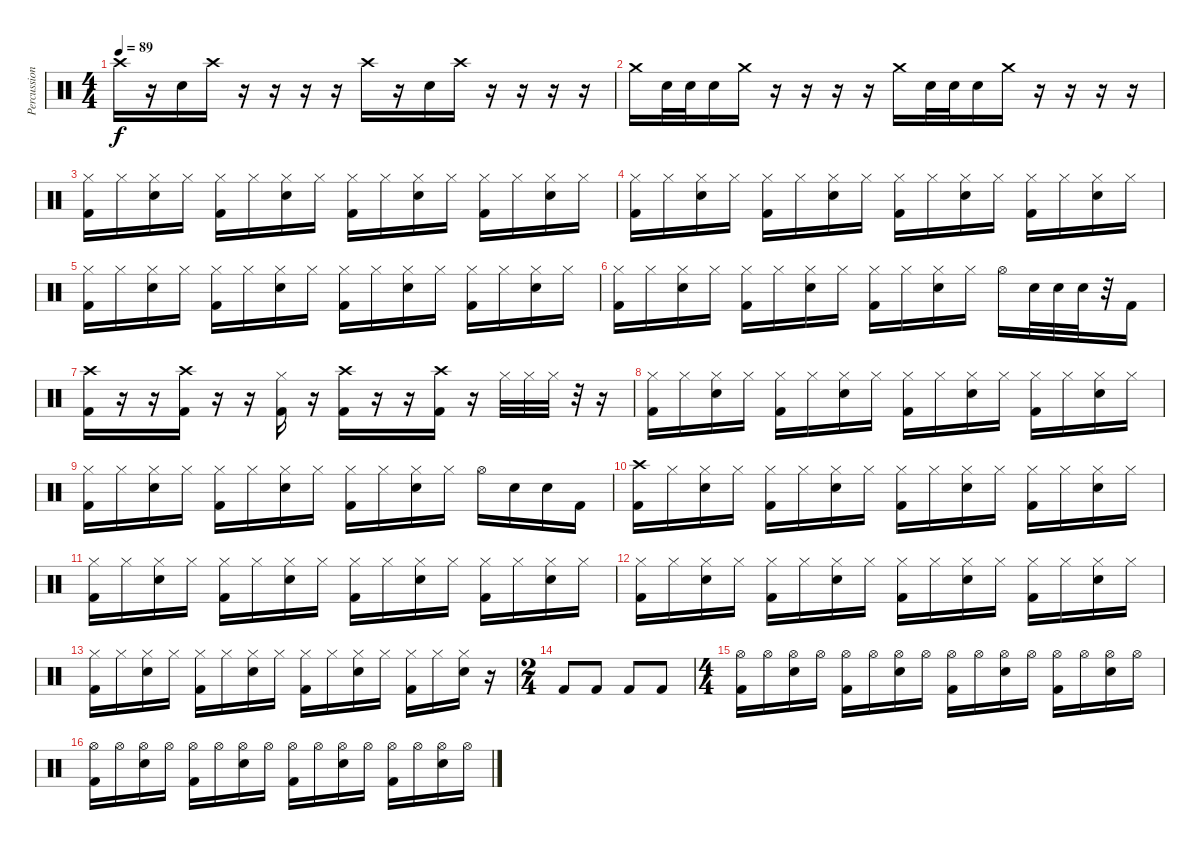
\track ("Percussion" "Percussion") {instrument percussion}
\staff {score}
\articulation defaults
\ts (4 4)
\tempo 89
\clef neutral
\ks c "Crash high (hit)".16{dy f}
r.16 "Snare (hit) 2".16 "Crash high (hit)".16 r.16 r.16 r.16 r.16 "Crash high (hit)".16 r.16 "Snare (hit) 2".16 "Crash high (hit)".16 r.16 r.16 r.16 r.16 |
"Crash medium (hit)".16 "Snare (hit) 2".32 "Snare (hit) 2".32 "Snare (hit) 2".16 "Crash medium (hit)".16 r.16 r.16 r.16 r.16 "Crash medium (hit)".16 "Snare (hit) 2".32 "Snare (hit) 2".32 "Snare (hit) 2".16 "Crash medium (hit)".16 r.16 r.16 r.16 r.16 |
("Hi-Hat (closed)" "Kick (hit) 2").16 "Hi-Hat (closed)".16 ("Hi-Hat (closed)" "Snare (hit) 2").16 "Hi-Hat (closed)".16 ("Hi-Hat (closed)" "Kick (hit) 2").16 "Hi-Hat (closed)".16 ("Hi-Hat (closed)" "Snare (hit) 2").16 "Hi-Hat (closed)".16 ("Hi-Hat (closed)" "Kick (hit) 2").16 "Hi-Hat (closed)".16 ("Hi-Hat (closed)" "Snare (hit) 2").16 "Hi-Hat (closed)".16 ("Hi-Hat (closed)" "Kick (hit) 2").16 "Hi-Hat (closed)".16 ("Hi-Hat (closed)" "Snare (hit) 2").16 "Hi-Hat (closed)".16 |
("Hi-Hat (closed)" "Kick (hit) 2").16 "Hi-Hat (closed)".16 ("Hi-Hat (closed)" "Snare (hit) 2").16 "Hi-Hat (closed)".16 ("Hi-Hat (closed)" "Kick (hit) 2").16 "Hi-Hat (closed)".16 ("Hi-Hat (closed)" "Snare (hit) 2").16 "Hi-Hat (closed)".16 ("Hi-Hat (closed)" "Kick (hit) 2").16 "Hi-Hat (closed)".16 ("Hi-Hat (closed)" "Snare (hit) 2").16 "Hi-Hat (closed)".16 ("Hi-Hat (closed)" "Kick (hit) 2").16 "Hi-Hat (closed)".16 ("Hi-Hat (closed)" "Snare (hit) 2").16 "Hi-Hat (closed)".16 |
("Hi-Hat (closed)" "Kick (hit) 2").16 "Hi-Hat (closed)".16 ("Hi-Hat (closed)" "Snare (hit) 2").16 "Hi-Hat (closed)".16 ("Hi-Hat (closed)" "Kick (hit) 2").16 "Hi-Hat (closed)".16 ("Hi-Hat (closed)" "Snare (hit) 2").16 "Hi-Hat (closed)".16 ("Hi-Hat (closed)" "Kick (hit) 2").16 "Hi-Hat (closed)".16 ("Hi-Hat (closed)" "Snare (hit) 2").16 "Hi-Hat (closed)".16 ("Hi-Hat (closed)" "Kick (hit) 2").16 "Hi-Hat (closed)".16 ("Hi-Hat (closed)" "Snare (hit) 2").16 "Hi-Hat (closed)".16 |
("Hi-Hat (closed)" "Kick (hit) 2").16 "Hi-Hat (closed)".16 ("Hi-Hat (closed)" "Snare (hit) 2").16 "Hi-Hat (closed)".16 ("Hi-Hat (closed)" "Kick (hit) 2").16 "Hi-Hat (closed)".16 ("Hi-Hat (closed)" "Snare (hit) 2").16 "Hi-Hat (closed)".16 ("Hi-Hat (closed)" "Kick (hit) 2").16 "Hi-Hat (closed)".16 ("Hi-Hat (closed)" "Snare (hit) 2").16 "Hi-Hat (closed)".16 "Hi-Hat (open)".16 "Snare (hit) 2".32 "Snare (hit) 2".32 "Snare (hit) 2".32 r.32 "Kick (hit) 2".16 |
("Crash high (hit)" "Kick (hit) 2").16 r.16 r.16 ("Crash high (hit)" "Kick (hit) 2").16 r.16 r.16 ("Hi-Hat (closed)" "Kick (hit) 2").16 r.16 ("Crash high (hit)" "Kick (hit) 2").16 r.16 r.16 ("Crash high (hit)" "Kick (hit) 2").16 r.16 "Hi-Hat (closed)".32 "Hi-Hat (closed)".32 "Hi-Hat (closed)".32 r.32 r.16 |
("Hi-Hat (closed)" "Kick (hit) 2").16 "Hi-Hat (closed)".16 ("Hi-Hat (closed)" "Snare (hit) 2").16 "Hi-Hat (closed)".16 ("Hi-Hat (closed)" "Kick (hit) 2").16 "Hi-Hat (closed)".16 ("Hi-Hat (closed)" "Snare (hit) 2").16 "Hi-Hat (closed)".16 ("Hi-Hat (closed)" "Kick (hit) 2").16 "Hi-Hat (closed)".16 ("Hi-Hat (closed)" "Snare (hit) 2").16 "Hi-Hat (closed)".16 ("Hi-Hat (closed)" "Kick (hit) 2").16 "Hi-Hat (closed)".16 ("Hi-Hat (closed)" "Snare (hit) 2").16 "Hi-Hat (closed)".16 |
("Hi-Hat (closed)" "Kick (hit) 2").16 "Hi-Hat (closed)".16 ("Hi-Hat (closed)" "Snare (hit) 2").16 "Hi-Hat (closed)".16 ("Hi-Hat (closed)" "Kick (hit) 2").16 "Hi-Hat (closed)".16 ("Hi-Hat (closed)" "Snare (hit) 2").16 "Hi-Hat (closed)".16 ("Hi-Hat (closed)" "Kick (hit) 2").16 "Hi-Hat (closed)".16 ("Hi-Hat (closed)" "Snare (hit) 2").16 "Hi-Hat (closed)".16 "Hi-Hat (open)".16 "Snare (hit) 2".16 "Snare (hit) 2".16 "Kick (hit) 2".16 |
("Crash high (hit)" "Kick (hit) 2").16 "Hi-Hat (closed)".16 ("Hi-Hat (closed)" "Snare (hit) 2").16 "Hi-Hat (closed)".16 ("Hi-Hat (closed)" "Kick (hit) 2").16 "Hi-Hat (closed)".16 ("Hi-Hat (closed)" "Snare (hit) 2").16 "Hi-Hat (closed)".16 ("Hi-Hat (closed)" "Kick (hit) 2").16 "Hi-Hat (closed)".16 ("Hi-Hat (closed)" "Snare (hit) 2").16 "Hi-Hat (closed)".16 ("Hi-Hat (closed)" "Kick (hit) 2").16 "Hi-Hat (closed)".16 ("Hi-Hat (closed)" "Snare (hit) 2").16 "Hi-Hat (closed)".16 |
("Hi-Hat (closed)" "Kick (hit) 2").16 "Hi-Hat (closed)".16 ("Hi-Hat (closed)" "Snare (hit) 2").16 "Hi-Hat (closed)".16 ("Hi-Hat (closed)" "Kick (hit) 2").16 "Hi-Hat (closed)".16 ("Hi-Hat (closed)" "Snare (hit) 2").16 "Hi-Hat (closed)".16 ("Hi-Hat (closed)" "Kick (hit) 2").16 "Hi-Hat (closed)".16 ("Hi-Hat (closed)" "Snare (hit) 2").16 "Hi-Hat (closed)".16 ("Hi-Hat (closed)" "Kick (hit) 2").16 "Hi-Hat (closed)".16 ("Hi-Hat (closed)" "Snare (hit) 2").16 "Hi-Hat (closed)".16 |
("Hi-Hat (closed)" "Kick (hit) 2").16 "Hi-Hat (closed)".16 ("Hi-Hat (closed)" "Snare (hit) 2").16 "Hi-Hat (closed)".16 ("Hi-Hat (closed)" "Kick (hit) 2").16 "Hi-Hat (closed)".16 ("Hi-Hat (closed)" "Snare (hit) 2").16 "Hi-Hat (closed)".16 ("Hi-Hat (closed)" "Kick (hit) 2").16 "Hi-Hat (closed)".16 ("Hi-Hat (closed)" "Snare (hit) 2").16 "Hi-Hat (closed)".16 ("Hi-Hat (closed)" "Kick (hit) 2").16 "Hi-Hat (closed)".16 ("Hi-Hat (closed)" "Snare (hit) 2").16 "Hi-Hat (closed)".16 |
("Hi-Hat (closed)" "Kick (hit) 2").16 "Hi-Hat (closed)".16 ("Hi-Hat (closed)" "Snare (hit) 2").16 "Hi-Hat (closed)".16 ("Hi-Hat (closed)" "Kick (hit) 2").16 "Hi-Hat (closed)".16 ("Hi-Hat (closed)" "Snare (hit) 2").16 "Hi-Hat (closed)".16 ("Hi-Hat (closed)" "Kick (hit) 2").16 "Hi-Hat (closed)".16 ("Hi-Hat (closed)" "Snare (hit) 2").16 "Hi-Hat (closed)".16 ("Hi-Hat (closed)" "Kick (hit) 2").16 "Hi-Hat (closed)".16 ("Hi-Hat (closed)" "Snare (hit) 2").16 r.16 |
\ts (2 4)
"Kick (hit) 2".8 "Kick (hit) 2".8 "Kick (hit) 2".8 "Kick (hit) 2".8 |
\ts (4 4)
("Hi-Hat (open)" "Kick (hit) 2").16 "Hi-Hat (open)".16 ("Hi-Hat (open)" "Snare (hit) 2").16 "Hi-Hat (open)".16 ("Hi-Hat (open)" "Kick (hit) 2").16 "Hi-Hat (open)".16 ("Hi-Hat (open)" "Snare (hit) 2").16 "Hi-Hat (open)".16 ("Hi-Hat (open)" "Kick (hit) 2").16 "Hi-Hat (open)".16 ("Hi-Hat (open)" "Snare (hit) 2").16 "Hi-Hat (open)".16 ("Hi-Hat (open)" "Kick (hit) 2").16 "Hi-Hat (open)".16 ("Hi-Hat (open)" "Snare (hit) 2").16 "Hi-Hat (open)".16 |
("Hi-Hat (open)" "Kick (hit) 2").16 "Hi-Hat (open)".16 ("Hi-Hat (open)" "Snare (hit) 2").16 "Hi-Hat (open)".16 ("Hi-Hat (open)" "Kick (hit) 2").16 "Hi-Hat (open)".16 ("Hi-Hat (open)" "Snare (hit) 2").16 "Hi-Hat (open)".16 ("Hi-Hat (open)" "Kick (hit) 2").16 "Hi-Hat (open)".16 ("Hi-Hat (open)" "Snare (hit) 2").16 "Hi-Hat (open)".16 ("Hi-Hat (open)" "Kick (hit) 2").16 "Hi-Hat (open)".16 ("Hi-Hat (open)" "Snare (hit) 2").16 "Hi-Hat (open)".16
